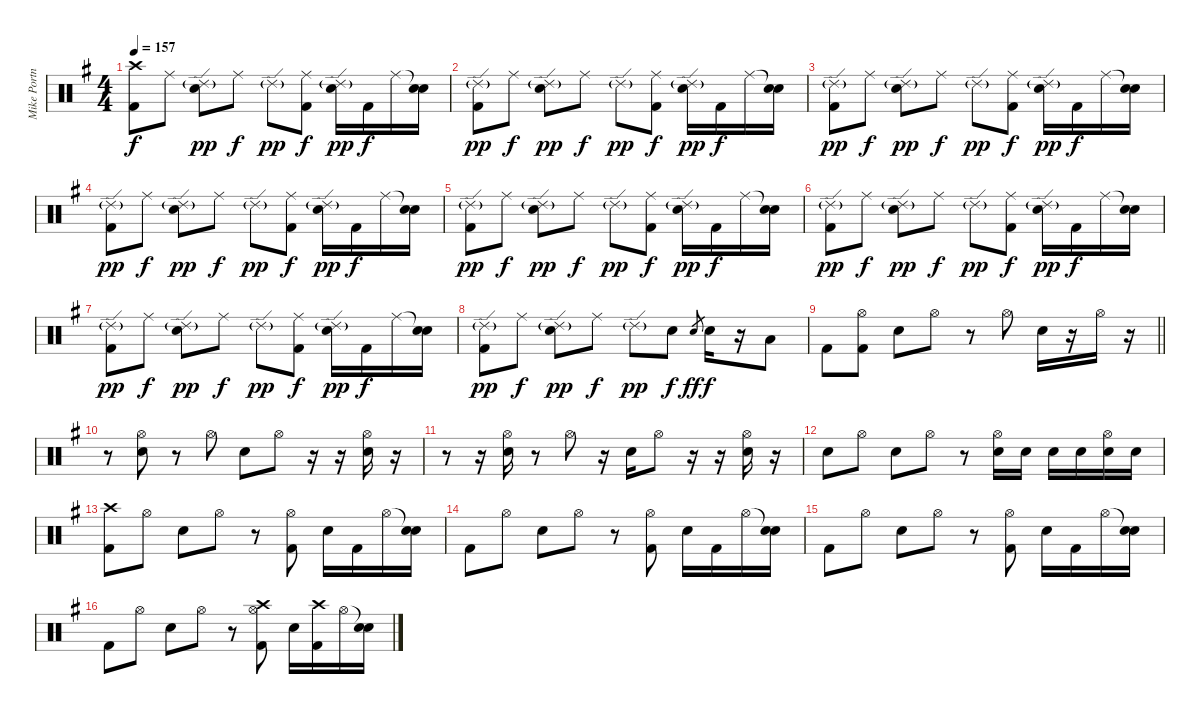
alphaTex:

\track ("Mike Portnoy" "Mike Portn") {instrument percussion}
\staff {score}
\articulation defaults
\ts (4 4)
\tempo 157
\clef neutral
\ks g
("Kick (hit) 2" "Crash high (hit)").8{dy f} "Ride (middle)".8 ("Snare (hit) 2" "Ride (edge) 2"{g}).8{dy pp} "Ride (middle)".8{dy f} "Ride (edge) 2"{g}.8{dy pp} ("Kick (hit) 2" "Ride (middle)").8{dy f} ("Snare (hit) 2" "Ride (edge) 2"{g}).16{dy pp} "Kick (hit) 2".16{dy f} "Ride (middle)".16 ("Snare (hit)"{t} "Snare (hit) 2").16 |
("Kick (hit) 2" "Ride (edge) 2"{g}).8{dy pp} "Ride (middle)".8{dy f} ("Snare (hit) 2" "Ride (edge) 2"{g}).8{dy pp} "Ride (middle)".8{dy f} "Ride (edge) 2"{g}.8{dy pp} ("Kick (hit) 2" "Ride (middle)").8{dy f} ("Snare (hit) 2" "Ride (edge) 2"{g}).16{dy pp} "Kick (hit) 2".16{dy f} "Ride (middle)".16 ("Snare (hit)"{t} "Snare (hit) 2").16 |
("Kick (hit) 2" "Ride (edge) 2"{g}).8{dy pp} "Ride (middle)".8{dy f} ("Snare (hit) 2" "Ride (edge) 2"{g}).8{dy pp} "Ride (middle)".8{dy f} "Ride (edge) 2"{g}.8{dy pp} ("Kick (hit) 2" "Ride (middle)").8{dy f} ("Snare (hit) 2" "Ride (edge) 2"{g}).16{dy pp} "Kick (hit) 2".16{dy f} "Ride (middle)".16 ("Snare (hit)"{t} "Snare (hit) 2").16 |
("Kick (hit) 2" "Ride (edge) 2"{g}).8{dy pp} "Ride (middle)".8{dy f} ("Snare (hit) 2" "Ride (edge) 2"{g}).8{dy pp} "Ride (middle)".8{dy f} "Ride (edge) 2"{g}.8{dy pp} ("Kick (hit) 2" "Ride (middle)").8{dy f} ("Snare (hit) 2" "Ride (edge) 2"{g}).16{dy pp} "Kick (hit) 2".16{dy f} "Ride (middle)".16 ("Snare (hit)"{t} "Snare (hit) 2").16 |
("Kick (hit) 2" "Ride (edge) 2"{g}).8{dy pp} "Ride (middle)".8{dy f} ("Snare (hit) 2" "Ride (edge) 2"{g}).8{dy pp} "Ride (middle)".8{dy f} "Ride (edge) 2"{g}.8{dy pp} ("Kick (hit) 2" "Ride (middle)").8{dy f} ("Snare (hit) 2" "Ride (edge) 2"{g}).16{dy pp} "Kick (hit) 2".16{dy f} "Ride (middle)".16 ("Snare (hit)"{t} "Snare (hit) 2").16 |
("Kick (hit) 2" "Ride (edge) 2"{g}).8{dy pp} "Ride (middle)".8{dy f} ("Snare (hit) 2" "Ride (edge) 2"{g}).8{dy pp} "Ride (middle)".8{dy f} "Ride (edge) 2"{g}.8{dy pp} ("Kick (hit) 2" "Ride (middle)").8{dy f} ("Snare (hit) 2" "Ride (edge) 2"{g}).16{dy pp} "Kick (hit) 2".16{dy f} "Ride (middle)".16 ("Snare (hit)"{t} "Snare (hit) 2").16 |
("Kick (hit) 2" "Ride (edge) 2"{g}).8{dy pp} "Ride (middle)".8{dy f} ("Snare (hit) 2" "Ride (edge) 2"{g}).8{dy pp} "Ride (middle)".8{dy f} "Ride (edge) 2"{g}.8{dy pp} ("Kick (hit) 2" "Ride (middle)").8{dy f} ("Snare (hit) 2" "Ride (edge) 2"{g}).16{dy pp} "Kick (hit) 2".16{dy f} "Ride (middle)".16 ("Snare (hit)"{t} "Snare (hit) 2").16 |
("Kick (hit) 2" "Ride (edge) 2"{g}).8{dy pp} "Ride (middle)".8{dy f} ("Snare (hit) 2" "Ride (edge) 2"{g}).8{dy pp} "Ride (middle)".8{dy f} "Ride (edge) 2"{g}.8{dy pp} "Snare (hit) 2".8{dy f} "Snare (hit) 2".8{gr dy ff} "Snare (hit) 2".16{dy f} r.16 "Low Floor Tom (hit)".8 |
\barLineRight lightlight "Kick (hit) 2".8
("Kick (hit) 2" "Hi-Hat (open)").8 "Snare (hit) 2".8 "Hi-Hat (open)".8 r.8 "Hi-Hat (open)".8 "Snare (hit) 2".16 r.16 "Hi-Hat (open)".16 r.16 |
r.8 ("Snare (hit) 2" "Hi-Hat (open)").8 r.8 "Hi-Hat (open)".8 "Snare (hit) 2".8 "Hi-Hat (open)".8 r.16 r.16 ("Snare (hit) 2" "Hi-Hat (open)").16 r.16 |
r.8 r.16 ("Snare (hit) 2" "Hi-Hat (open)").16 r.8 "Hi-Hat (open)".8 r.16 "Snare (hit) 2".16 "Hi-Hat (open)".8 r.16 r.16 ("Snare (hit) 2" "Hi-Hat (open)").16 r.16 |
"Snare (hit) 2".8 "Hi-Hat (open)".8 "Snare (hit) 2".8 "Hi-Hat (open)".8 r.8 ("Snare (hit) 2" "Hi-Hat (open)").16 "Snare (hit) 2".16 "Snare (hit) 2".16 "Snare (hit) 2".16 ("Snare (hit) 2" "Hi-Hat (open)").16 "Snare (hit) 2".16 |
("Kick (hit) 2" "Crash high (hit)").8 "Hi-Hat (open)".8 "Snare (hit) 2".8 "Hi-Hat (open)".8 r.8 ("Kick (hit) 2" "Hi-Hat (open)").8 "Snare (hit) 2".16 "Kick (hit) 2".16 "Hi-Hat (open)".16 ("Snare (hit)"{t} "Snare (hit) 2").16 |
"Kick (hit) 2".8 "Hi-Hat (open)".8 "Snare (hit) 2".8 "Hi-Hat (open)".8 r.8 ("Kick (hit) 2" "Hi-Hat (open)").8 "Snare (hit) 2".16 "Kick (hit) 2".16 "Hi-Hat (open)".16 ("Snare (hit)"{t} "Snare (hit) 2").16 |
"Kick (hit) 2".8 "Hi-Hat (open)".8 "Snare (hit) 2".8 "Hi-Hat (open)".8 r.8 ("Kick (hit) 2" "Hi-Hat (open)").8 "Snare (hit) 2".16 "Kick (hit) 2".16 "Hi-Hat (open)".16 ("Snare (hit)"{t} "Snare (hit) 2").16 |
"Kick (hit) 2".8 "Hi-Hat (open)".8 "Snare (hit) 2".8 "Hi-Hat (open)".8 r.8 ("Kick (hit) 2" "Hi-Hat (open)" "Crash high (hit)").8 "Snare (hit) 2".16 ("Kick (hit) 2" "Crash high (hit)").16 "Hi-Hat (open)".16 ("Snare (hit)"{t} "Snare (hit) 2").16
